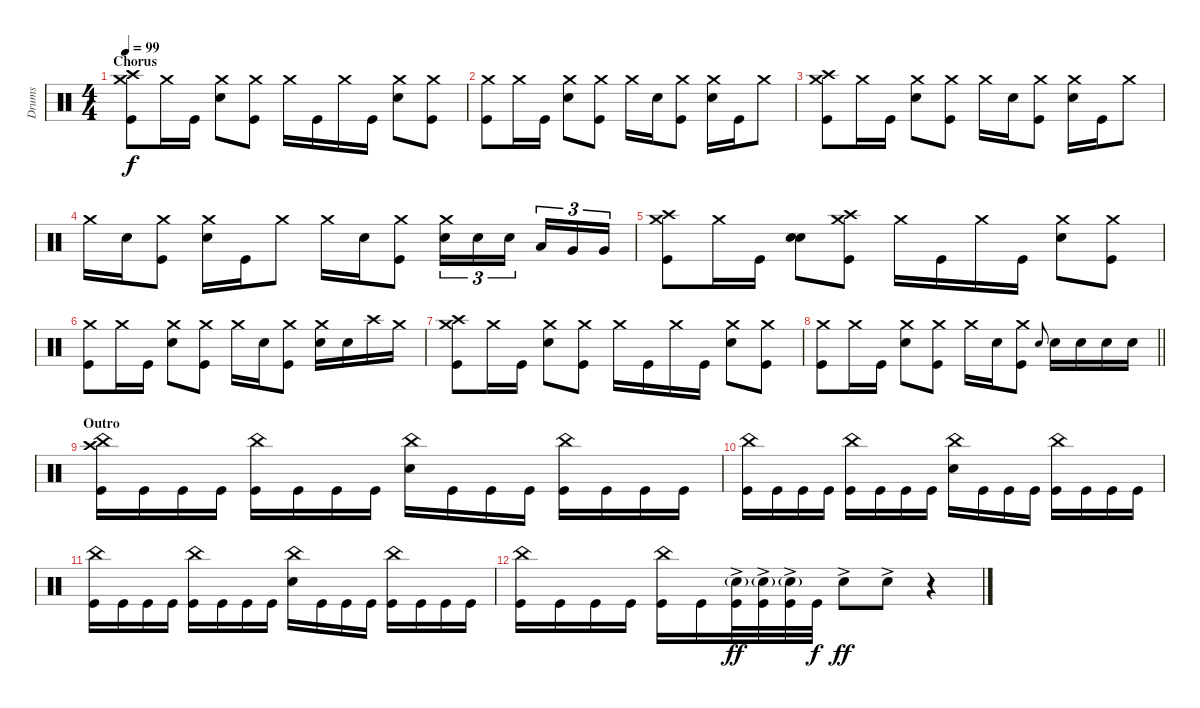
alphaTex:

\track ("Drums" "Drums") {instrument percussion}
\staff {score}
\articulation defaults
\ts (4 4)
\section ("" "Chorus")
\tempo 99
\clef neutral
\ks c
("Crash high (hit)" "Crash medium (hit)" "Kick (hit)").8{dy f} "Crash medium (hit)".16 "Kick (hit)".16 ("Crash medium (hit)" "Snare (hit) 2").8 ("Crash medium (hit)" "Kick (hit)").8 "Crash medium (hit)".16 "Kick (hit)".16 "Crash medium (hit)".16 "Kick (hit)".16 ("Crash medium (hit)" "Snare (hit) 2").8 ("Crash medium (hit)" "Kick (hit)").8 |
("Crash medium (hit)" "Kick (hit)").8 "Crash medium (hit)".16 "Kick (hit)".16 ("Crash medium (hit)" "Snare (hit) 2").8 ("Crash medium (hit)" "Kick (hit)").8 "Crash medium (hit)".16 "Snare (hit) 2".16 ("Crash medium (hit)" "Kick (hit)").8 ("Crash medium (hit)" "Snare (hit) 2").16 "Kick (hit)".16 "Crash medium (hit)".8 |
("Crash medium (hit)" "Crash high (hit)" "Kick (hit)").8 "Crash medium (hit)".16 "Kick (hit)".16 ("Crash medium (hit)" "Snare (hit) 2").8 ("Crash medium (hit)" "Kick (hit)").8 "Crash medium (hit)".16 "Snare (hit) 2".16 ("Crash medium (hit)" "Kick (hit)").8 ("Crash medium (hit)" "Snare (hit) 2").16 "Kick (hit)".16 "Crash medium (hit)".8 |
"Crash medium (hit)".16 "Snare (hit) 2".16 ("Crash medium (hit)" "Kick (hit)").8 ("Crash medium (hit)" "Snare (hit) 2").16 "Kick (hit)".16 "Crash medium (hit)".8 "Crash medium (hit)".16 "Snare (hit) 2".16 ("Crash medium (hit)" "Kick (hit)").8 ("Crash medium (hit)" "Snare (hit) 2").16{tu (3 2)} "Snare (hit) 2".16{tu (3 2)} "Snare (hit) 2".16{tu (3 2) beam splitsecondary} "Low Tom (hit)".16{tu (3 2)} "Very Low Tom (hit)".16{tu (3 2)} "Very Low Tom (hit)".16{tu (3 2)} |
("Crash high (hit)" "Crash medium (hit)" "Kick (hit)").8 "Crash medium (hit)".16 "Kick (hit)".16 ("Snare (hit) 2" "Snare (hit) 2").8 ("Crash medium (hit)" "Crash high (hit)" "Kick (hit)").8 "Crash medium (hit)".16 "Kick (hit)".16 "Crash medium (hit)".16 "Kick (hit)".16 ("Crash medium (hit)" "Snare (hit) 2").8 ("Crash medium (hit)" "Kick (hit)").8 |
("Crash medium (hit)" "Kick (hit)").8 "Crash medium (hit)".16 "Kick (hit)".16 ("Crash medium (hit)" "Snare (hit) 2").8 ("Crash medium (hit)" "Kick (hit)").8 "Crash medium (hit)".16 "Snare (hit) 2".16 ("Crash medium (hit)" "Kick (hit)").8 ("Crash medium (hit)" "Snare (hit) 2").16 "Snare (hit) 2".16 "Crash high (hit)".16 "Crash medium (hit)".16 |
("Crash high (hit)" "Crash medium (hit)" "Kick (hit)").8 "Crash medium (hit)".16 "Kick (hit)".16 ("Crash medium (hit)" "Snare (hit) 2").8 ("Crash medium (hit)" "Kick (hit)").8 "Crash medium (hit)".16 "Kick (hit)".16 "Crash medium (hit)".16 "Kick (hit)".16 ("Crash medium (hit)" "Snare (hit) 2").8 ("Crash medium (hit)" "Kick (hit)").8 |
\barLineRight lightlight
("Crash medium (hit)" "Kick (hit)").8 "Crash medium (hit)".16 "Kick (hit)".16 ("Crash medium (hit)" "Snare (hit) 2").8 ("Crash medium (hit)" "Kick (hit)").8 "Crash medium (hit)".16 "Snare (hit) 2".16 ("Crash medium (hit)" "Kick (hit)").8 "Snare (hit) 2".8{gr onbeat} "Snare (hit) 2".16 "Snare (hit) 2".16 "Snare (hit) 2".16 "Snare (hit) 2".16 |
\section ("" "Outro")
("Crash high (hit)" "China (hit)" "Kick (hit)").16 "Kick (hit)".16 "Kick (hit)".16 "Kick (hit)".16 ("China (hit)" "Kick (hit)").16 "Kick (hit)".16 "Kick (hit)".16 "Kick (hit)".16 ("China (hit)" "Snare (hit) 2").16 "Kick (hit)".16 "Kick (hit)".16 "Kick (hit)".16 ("China (hit)" "Kick (hit)").16 "Kick (hit)".16 "Kick (hit)".16 "Kick (hit)".16 |
("China (hit)" "Kick (hit)").16 "Kick (hit)".16 "Kick (hit)".16 "Kick (hit)".16 ("China (hit)" "Kick (hit)").16 "Kick (hit)".16 "Kick (hit)".16 "Kick (hit)".16 ("China (hit)" "Snare (hit) 2").16 "Kick (hit)".16 "Kick (hit)".16 "Kick (hit)".16 ("China (hit)" "Kick (hit)").16 "Kick (hit)".16 "Kick (hit)".16 "Kick (hit)".16 |
("China (hit)" "Kick (hit)").16 "Kick (hit)".16 "Kick (hit)".16 "Kick (hit)".16 ("China (hit)" "Kick (hit)").16 "Kick (hit)".16 "Kick (hit)".16 "Kick (hit)".16 ("China (hit)" "Snare (hit) 2").16 "Kick (hit)".16 "Kick (hit)".16 "Kick (hit)".16 ("China (hit)" "Kick (hit)").16 "Kick (hit)".16 "Kick (hit)".16 "Kick (hit)".16 |
("China (hit)" "Kick (hit)").16 "Kick (hit)".16 "Kick (hit)".16 "Kick (hit)".16 ("China (hit)" "Kick (hit)").16 "Kick (hit)".16 ("Snare (hit) 2"{g} "Kick (hit)"{ac}).32{dy ff} ("Snare (hit) 2"{g} "Kick (hit)"{ac}).32 ("Snare (hit) 2"{g} "Kick (hit)"{ac}).32 "Kick (hit)".32{dy f} "Snare (hit) 2"{ac}.8{dy ff} "Snare (hit) 2"{ac}.8 r.4
